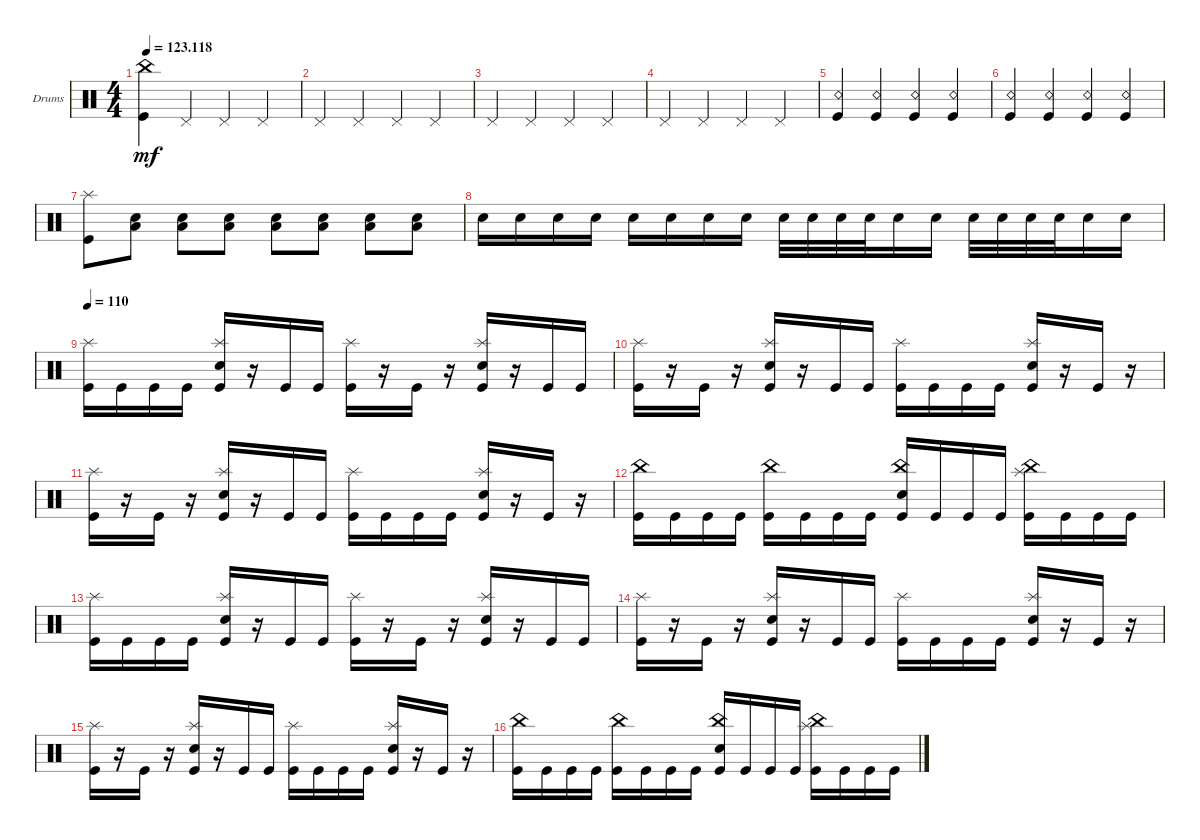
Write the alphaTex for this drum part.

\defaultSystemsLayout 4
\bracketExtendMode groupsimilarinstruments
\firstSystemTrackNameOrientation horizontal
\otherSystemsTrackNameOrientation horizontal
\track ("Drumkit" "Drums") {instrument percussion}
\staff {score}
\articulation defaults
\ts (4 4)
\tempo
123.118
\accidentals auto
\clef neutral
\ottava regular
\simile none
\ks c
("Kick (hit)" "China (hit)").4{dy mf} "Pedal Hi-Hat (hit)".4 "Pedal Hi-Hat (hit)".4 "Pedal Hi-Hat (hit)".4 |
"Pedal Hi-Hat (hit)".4 "Pedal Hi-Hat (hit)".4 "Pedal Hi-Hat (hit)".4 "Pedal Hi-Hat (hit)".4 |
"Pedal Hi-Hat (hit)".4 "Pedal Hi-Hat (hit)".4 "Pedal Hi-Hat (hit)".4 "Pedal Hi-Hat (hit)".4 |
"Pedal Hi-Hat (hit)".4 "Pedal Hi-Hat (hit)".4 "Pedal Hi-Hat (hit)".4 "Pedal Hi-Hat (hit)".4 |
("Snare (rim shot)" "Kick (hit)").4 ("Snare (rim shot)" "Kick (hit)").4 ("Snare (rim shot)" "Kick (hit)").4 ("Snare (rim shot)" "Kick (hit)").4 |
("Snare (rim shot)" "Kick (hit)").4 ("Snare (rim shot)" "Kick (hit)").4 ("Snare (rim shot)" "Kick (hit)").4 ("Snare (rim shot)" "Kick (hit)").4 |
("Splash (hit)" "Kick (hit)").8 ("Snare (hit) 2" "Low Tom (hit)").8 ("Snare (hit) 2" "Low Tom (hit)").8 ("Snare (hit) 2" "Low Tom (hit)").8 ("Snare (hit) 2" "Low Tom (hit)").8 ("Snare (hit) 2" "Low Tom (hit)").8 ("Snare (hit) 2" "Low Tom (hit)").8 ("Snare (hit) 2" "Low Tom (hit)").8 |
"Snare (hit) 2".16 "Snare (hit) 2".16 "Snare (hit) 2".16 "Snare (hit) 2".16 "Snare (hit) 2".16 "Snare (hit) 2".16 "Snare (hit) 2".16 "Snare (hit) 2".16 "Snare (hit) 2".32 "Snare (hit) 2".32 "Snare (hit) 2".32 "Snare (hit) 2".32 "Snare (hit) 2".16 "Snare (hit) 2".16 "Snare (hit) 2".32 "Snare (hit) 2".32 "Snare (hit) 2".32 "Snare (hit) 2".32 "Snare (hit) 2".16 "Snare (hit) 2".16 |
\tempo 110
("Kick (hit)" "Splash (hit)").16 "Kick (hit)".16 "Kick (hit)".16 "Kick (hit)".16 ("Kick (hit)" "Splash (hit)" "Snare (hit) 2").16 r.16 "Kick (hit)".16 "Kick (hit)".16 ("Kick (hit)" "Splash (hit)").16 r.16 "Kick (hit)".16 r.16 ("Kick (hit)" "Splash (hit)" "Snare (hit) 2").16 r.16 "Kick (hit)".16 "Kick (hit)".16 |
("Kick (hit)" "Splash (hit)").16 r.16 "Kick (hit)".16 r.16 ("Kick (hit)" "Splash (hit)" "Snare (hit) 2").16 r.16 "Kick (hit)".16 "Kick (hit)".16 ("Splash (hit)" "Kick (hit)").16 "Kick (hit)".16 "Kick (hit)".16 "Kick (hit)".16 ("Kick (hit)" "Splash (hit)" "Snare (hit) 2").16 r.16 "Kick (hit)".16 r.16 |
("Kick (hit)" "Splash (hit)").16 r.16 "Kick (hit)".16 r.16 ("Kick (hit)" "Splash (hit)" "Snare (hit) 2").16 r.16 "Kick (hit)".16 "Kick (hit)".16 ("Splash (hit)" "Kick (hit)").16 "Kick (hit)".16 "Kick (hit)".16 "Kick (hit)".16 ("Kick (hit)" "Splash (hit)" "Snare (hit) 2").16 r.16 "Kick (hit)".16 r.16 |
("Kick (hit)" "China (hit)").16 "Kick (hit)".16 "Kick (hit)".16 "Kick (hit)".16 ("Kick (hit)" "China (hit)").16 "Kick (hit)".16 "Kick (hit)".16 "Kick (hit)".16 ("Kick (hit)" "China (hit)" "Snare (hit) 2").16 "Kick (hit)".16 "Kick (hit)".16 "Kick (hit)".16 ("Kick (hit)" "China (hit)" "Splash (hit)").16 "Kick (hit)".16 "Kick (hit)".16 "Kick (hit)".16 |
("Kick (hit)" "Splash (hit)").16 "Kick (hit)".16 "Kick (hit)".16 "Kick (hit)".16 ("Kick (hit)" "Splash (hit)" "Snare (hit) 2").16 r.16 "Kick (hit)".16 "Kick (hit)".16 ("Kick (hit)" "Splash (hit)").16 r.16 "Kick (hit)".16 r.16 ("Kick (hit)" "Splash (hit)" "Snare (hit) 2").16 r.16 "Kick (hit)".16 "Kick (hit)".16 |
("Kick (hit)" "Splash (hit)").16 r.16 "Kick (hit)".16 r.16 ("Kick (hit)" "Splash (hit)" "Snare (hit) 2").16 r.16 "Kick (hit)".16 "Kick (hit)".16 ("Splash (hit)" "Kick (hit)").16 "Kick (hit)".16 "Kick (hit)".16 "Kick (hit)".16 ("Kick (hit)" "Splash (hit)" "Snare (hit) 2").16 r.16 "Kick (hit)".16 r.16 |
("Kick (hit)" "Splash (hit)").16 r.16 "Kick (hit)".16 r.16 ("Kick (hit)" "Splash (hit)" "Snare (hit) 2").16 r.16 "Kick (hit)".16 "Kick (hit)".16 ("Splash (hit)" "Kick (hit)").16 "Kick (hit)".16 "Kick (hit)".16 "Kick (hit)".16 ("Kick (hit)" "Splash (hit)" "Snare (hit) 2").16 r.16 "Kick (hit)".16 r.16 |
("Kick (hit)" "China (hit)").16 "Kick (hit)".16 "Kick (hit)".16 "Kick (hit)".16 ("Kick (hit)" "China (hit)").16 "Kick (hit)".16 "Kick (hit)".16 "Kick (hit)".16 ("Kick (hit)" "China (hit)" "Snare (hit) 2").16 "Kick (hit)".16 "Kick (hit)".16 "Kick (hit)".16 ("Kick (hit)" "China (hit)" "Splash (hit)").16 "Kick (hit)".16 "Kick (hit)".16 "Kick (hit)".16
